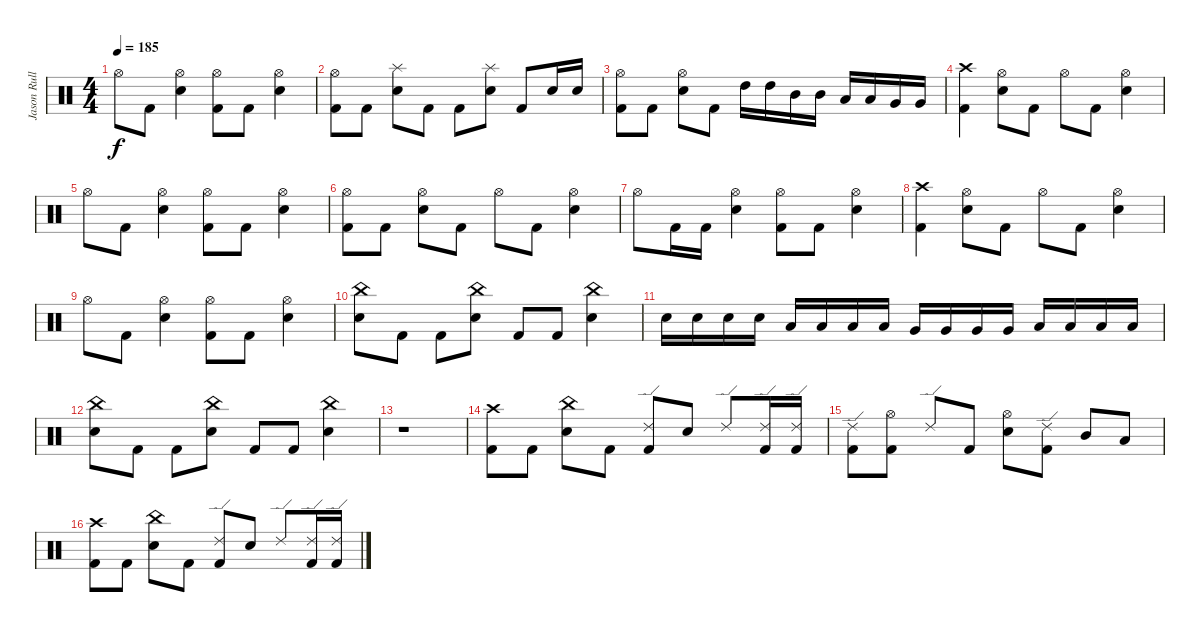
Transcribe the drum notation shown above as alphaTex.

\track ("Jason Rullo" "Jason Rull") {instrument percussion}
\staff {score}
\articulation defaults
\ts (4 4)
\tempo 185
\clef neutral
\ks c "Hi-Hat (open)".8{dy f} "Kick (hit) 2".8
("Hi-Hat (open)" "Snare (hit) 2").4 ("Hi-Hat (open)" "Kick (hit) 2").8 "Kick (hit) 2".8 ("Hi-Hat (open)" "Snare (hit) 2").4 |
("Hi-Hat (open)" "Kick (hit) 2").8 "Kick (hit) 2".8 ("Splash (hit)" "Snare (hit) 2").8 "Kick (hit) 2".8 "Kick (hit) 2".8 ("Splash (hit)" "Snare (hit) 2").8 "Kick (hit) 2".8 "Snare (hit) 2".16 "Snare (hit) 2".16 |
("Hi-Hat (open)" "Kick (hit) 2").8 "Kick (hit) 2".8 ("Hi-Hat (open)" "Snare (hit) 2").8 "Kick (hit) 2".8 "High Tom (hit)".16 "High Tom (hit)".16 "Mid Tom (hit)".16 "Mid Tom (hit)".16 "Low Tom (hit)".16 "Low Tom (hit)".16 "Very Low Tom (hit)".16 "Very Low Tom (hit)".16 |
("Crash high (hit)" "Kick (hit) 2").4 ("Hi-Hat (open)" "Snare (hit) 2").8 "Kick (hit) 2".8 "Hi-Hat (open)".8 "Kick (hit) 2".8 ("Hi-Hat (open)" "Snare (hit) 2").4 |
"Hi-Hat (open)".8 "Kick (hit) 2".8 ("Hi-Hat (open)" "Snare (hit) 2").4 ("Hi-Hat (open)" "Kick (hit) 2").8 "Kick (hit) 2".8 ("Hi-Hat (open)" "Snare (hit) 2").4 |
("Hi-Hat (open)" "Kick (hit) 2").8 "Kick (hit) 2".8 ("Hi-Hat (open)" "Snare (hit) 2").8 "Kick (hit) 2".8 "Hi-Hat (open)".8 "Kick (hit) 2".8 ("Hi-Hat (open)" "Snare (hit) 2").4 |
"Hi-Hat (open)".8 "Kick (hit) 2".16 "Kick (hit) 2".16 ("Hi-Hat (open)" "Snare (hit) 2").4 ("Hi-Hat (open)" "Kick (hit) 2").8 "Kick (hit) 2".8 ("Hi-Hat (open)" "Snare (hit) 2").4 |
("Crash high (hit)" "Kick (hit) 2").4 ("Hi-Hat (open)" "Snare (hit) 2").8 "Kick (hit) 2".8 "Hi-Hat (open)".8 "Kick (hit) 2".8 ("Hi-Hat (open)" "Snare (hit) 2").4 |
"Hi-Hat (open)".8 "Kick (hit) 2".8 ("Hi-Hat (open)" "Snare (hit) 2").4 ("Hi-Hat (open)" "Kick (hit) 2").8 "Kick (hit) 2".8 ("Hi-Hat (open)" "Snare (hit) 2").4 |
("China (hit)" "Snare (hit) 2").8 "Kick (hit) 2".8 "Kick (hit) 2".8 ("China (hit)" "Snare (hit) 2").8 "Kick (hit) 2".8 "Kick (hit) 2".8 ("China (hit)" "Snare (hit) 2").4 |
"Snare (hit) 2".16 "Snare (hit) 2".16 "Snare (hit) 2".16 "Snare (hit) 2".16 "Low Tom (hit)".16 "Low Tom (hit)".16 "Low Tom (hit)".16 "Low Tom (hit)".16 "Very Low Tom (hit)".16 "Very Low Tom (hit)".16 "Very Low Tom (hit)".16 "Very Low Tom (hit)".16 "Low Floor Tom (hit)".16 "Low Floor Tom (hit)".16 "Low Floor Tom (hit)".16 "Low Floor Tom (hit)".16 |
("China (hit)" "Snare (hit) 2").8 "Kick (hit) 2".8 "Kick (hit) 2".8 ("China (hit)" "Snare (hit) 2").8 "Kick (hit) 2".8 "Kick (hit) 2".8 ("China (hit)" "Snare (hit) 2").4 |
r.1 |
("Crash high (hit)" "Kick (hit) 2").8 "Kick (hit) 2".8 ("China (hit)" "Snare (hit) 2").8 "Kick (hit) 2".8 ("Ride (edge) 2" "Kick (hit) 2").8 "Snare (hit) 2".8 "Ride (edge) 2".8 ("Ride (edge) 2" "Kick (hit) 2").16 ("Ride (edge) 2" "Kick (hit) 2").16 |
("Ride (edge) 2" "Kick (hit) 2").8 ("Hi-Hat (open)" "Kick (hit) 2").8 "Ride (edge) 2".8 "Kick (hit) 2".8 ("Hi-Hat (open)" "Snare (hit) 2").8 ("Ride (edge) 2" "Kick (hit) 2").8 "Mid Tom (hit)".8 "Low Tom (hit)".8 |
("Crash high (hit)" "Kick (hit) 2").8 "Kick (hit) 2".8 ("China (hit)" "Snare (hit) 2").8 "Kick (hit) 2".8 ("Ride (edge) 2" "Kick (hit) 2").8 "Snare (hit) 2".8 "Ride (edge) 2".8 ("Ride (edge) 2" "Kick (hit) 2").16 ("Ride (edge) 2" "Kick (hit) 2").16
